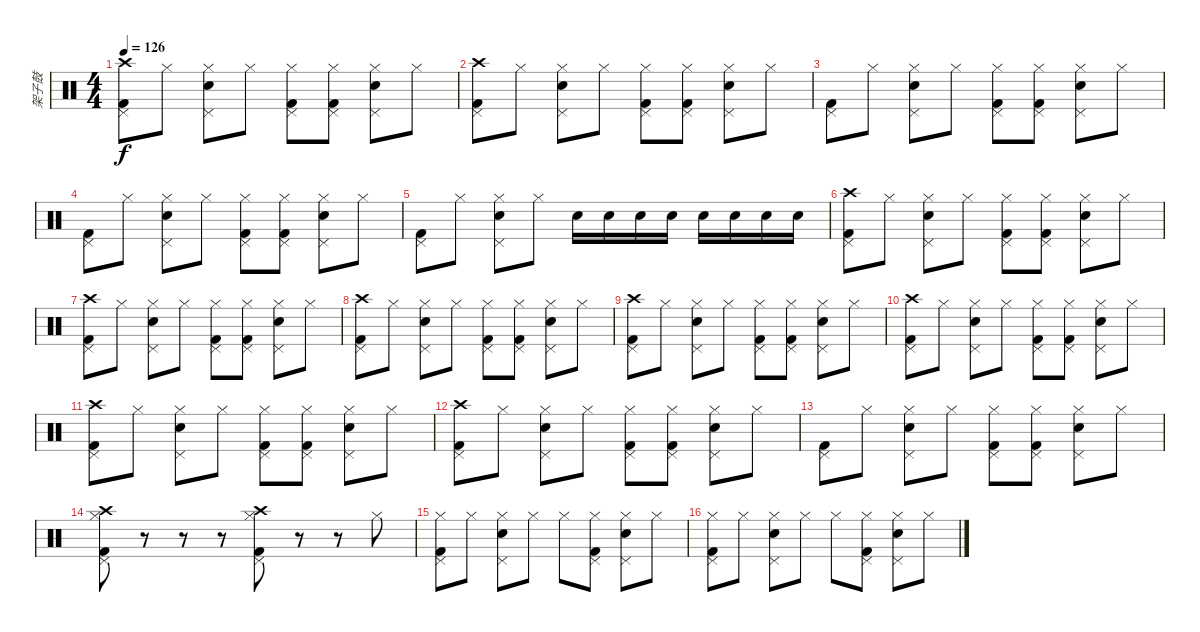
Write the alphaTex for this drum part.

\track ("架子鼓" "架子鼓") {instrument percussion}
\staff {score}
\articulation defaults
\ts (4 4)
\tempo 126
\clef neutral
\ks c
("Crash high (hit)" "Pedal Hi-Hat (hit)" "Kick (hit) 2").8{dy f} "Hi-Hat (closed)".8 ("Pedal Hi-Hat (hit)" "Hi-Hat (closed)" "Snare (hit) 2").8 "Hi-Hat (closed)".8 ("Pedal Hi-Hat (hit)" "Hi-Hat (closed)" "Kick (hit) 2").8 ("Pedal Hi-Hat (hit)" "Hi-Hat (closed)" "Kick (hit) 2").8 ("Pedal Hi-Hat (hit)" "Hi-Hat (closed)" "Snare (hit) 2").8 "Hi-Hat (closed)".8 |
("Crash high (hit)" "Pedal Hi-Hat (hit)" "Kick (hit) 2").8 "Hi-Hat (closed)".8 ("Pedal Hi-Hat (hit)" "Hi-Hat (closed)" "Snare (hit) 2").8 "Hi-Hat (closed)".8 ("Pedal Hi-Hat (hit)" "Hi-Hat (closed)" "Kick (hit) 2").8 ("Pedal Hi-Hat (hit)" "Hi-Hat (closed)" "Kick (hit) 2").8 ("Pedal Hi-Hat (hit)" "Hi-Hat (closed)" "Snare (hit) 2").8 "Hi-Hat (closed)".8 |
("Pedal Hi-Hat (hit)" "Kick (hit) 2").8 "Hi-Hat (closed)".8 ("Pedal Hi-Hat (hit)" "Hi-Hat (closed)" "Snare (hit) 2").8 "Hi-Hat (closed)".8 ("Pedal Hi-Hat (hit)" "Hi-Hat (closed)" "Kick (hit) 2").8 ("Pedal Hi-Hat (hit)" "Hi-Hat (closed)" "Kick (hit) 2").8 ("Pedal Hi-Hat (hit)" "Hi-Hat (closed)" "Snare (hit) 2").8 "Hi-Hat (closed)".8 |
("Pedal Hi-Hat (hit)" "Kick (hit) 2").8 "Hi-Hat (closed)".8 ("Pedal Hi-Hat (hit)" "Hi-Hat (closed)" "Snare (hit) 2").8 "Hi-Hat (closed)".8 ("Pedal Hi-Hat (hit)" "Hi-Hat (closed)" "Kick (hit) 2").8 ("Pedal Hi-Hat (hit)" "Hi-Hat (closed)" "Kick (hit) 2").8 ("Pedal Hi-Hat (hit)" "Hi-Hat (closed)" "Snare (hit) 2").8 "Hi-Hat (closed)".8 |
("Pedal Hi-Hat (hit)" "Kick (hit) 2").8 "Hi-Hat (closed)".8 ("Pedal Hi-Hat (hit)" "Hi-Hat (closed)" "Snare (hit) 2").8 "Hi-Hat (closed)".8 "Snare (hit) 2".16 "Snare (hit) 2".16 "Snare (hit) 2".16 "Snare (hit) 2".16 "Snare (hit) 2".16 "Snare (hit) 2".16 "Snare (hit) 2".16 "Snare (hit) 2".16 |
("Crash high (hit)" "Pedal Hi-Hat (hit)" "Kick (hit) 2").8 "Hi-Hat (closed)".8 ("Pedal Hi-Hat (hit)" "Hi-Hat (closed)" "Snare (hit) 2").8 "Hi-Hat (closed)".8 ("Pedal Hi-Hat (hit)" "Hi-Hat (closed)" "Kick (hit) 2").8 ("Pedal Hi-Hat (hit)" "Hi-Hat (closed)" "Kick (hit) 2").8 ("Pedal Hi-Hat (hit)" "Hi-Hat (closed)" "Snare (hit) 2").8 "Hi-Hat (closed)".8 |
("Crash high (hit)" "Pedal Hi-Hat (hit)" "Kick (hit) 2").8 "Hi-Hat (closed)".8 ("Pedal Hi-Hat (hit)" "Hi-Hat (closed)" "Snare (hit) 2").8 "Hi-Hat (closed)".8 ("Pedal Hi-Hat (hit)" "Hi-Hat (closed)" "Kick (hit) 2").8 ("Pedal Hi-Hat (hit)" "Hi-Hat (closed)" "Kick (hit) 2").8 ("Pedal Hi-Hat (hit)" "Hi-Hat (closed)" "Snare (hit) 2").8 "Hi-Hat (closed)".8 |
("Crash high (hit)" "Pedal Hi-Hat (hit)" "Kick (hit) 2").8 "Hi-Hat (closed)".8 ("Pedal Hi-Hat (hit)" "Hi-Hat (closed)" "Snare (hit) 2").8 "Hi-Hat (closed)".8 ("Pedal Hi-Hat (hit)" "Hi-Hat (closed)" "Kick (hit) 2").8 ("Pedal Hi-Hat (hit)" "Hi-Hat (closed)" "Kick (hit) 2").8 ("Pedal Hi-Hat (hit)" "Hi-Hat (closed)" "Snare (hit) 2").8 "Hi-Hat (closed)".8 |
("Crash high (hit)" "Pedal Hi-Hat (hit)" "Kick (hit) 2").8 "Hi-Hat (closed)".8 ("Pedal Hi-Hat (hit)" "Hi-Hat (closed)" "Snare (hit) 2").8 "Hi-Hat (closed)".8 ("Pedal Hi-Hat (hit)" "Hi-Hat (closed)" "Kick (hit) 2").8 ("Pedal Hi-Hat (hit)" "Hi-Hat (closed)" "Kick (hit) 2").8 ("Pedal Hi-Hat (hit)" "Hi-Hat (closed)" "Snare (hit) 2").8 "Hi-Hat (closed)".8 |
("Crash high (hit)" "Pedal Hi-Hat (hit)" "Kick (hit) 2").8 "Hi-Hat (closed)".8 ("Pedal Hi-Hat (hit)" "Hi-Hat (closed)" "Snare (hit) 2").8 "Hi-Hat (closed)".8 ("Pedal Hi-Hat (hit)" "Hi-Hat (closed)" "Kick (hit) 2").8 ("Pedal Hi-Hat (hit)" "Hi-Hat (closed)" "Kick (hit) 2").8 ("Pedal Hi-Hat (hit)" "Hi-Hat (closed)" "Snare (hit) 2").8 "Hi-Hat (closed)".8 |
("Crash high (hit)" "Pedal Hi-Hat (hit)" "Kick (hit) 2").8 "Hi-Hat (closed)".8 ("Pedal Hi-Hat (hit)" "Hi-Hat (closed)" "Snare (hit) 2").8 "Hi-Hat (closed)".8 ("Pedal Hi-Hat (hit)" "Hi-Hat (closed)" "Kick (hit) 2").8 ("Pedal Hi-Hat (hit)" "Hi-Hat (closed)" "Kick (hit) 2").8 ("Pedal Hi-Hat (hit)" "Hi-Hat (closed)" "Snare (hit) 2").8 "Hi-Hat (closed)".8 |
("Crash high (hit)" "Pedal Hi-Hat (hit)" "Kick (hit) 2").8 "Hi-Hat (closed)".8 ("Pedal Hi-Hat (hit)" "Hi-Hat (closed)" "Snare (hit) 2").8 "Hi-Hat (closed)".8 ("Pedal Hi-Hat (hit)" "Hi-Hat (closed)" "Kick (hit) 2").8 ("Pedal Hi-Hat (hit)" "Hi-Hat (closed)" "Kick (hit) 2").8 ("Pedal Hi-Hat (hit)" "Hi-Hat (closed)" "Snare (hit) 2").8 "Hi-Hat (closed)".8 |
("Pedal Hi-Hat (hit)" "Kick (hit) 2").8 "Hi-Hat (closed)".8 ("Pedal Hi-Hat (hit)" "Hi-Hat (closed)" "Snare (hit) 2").8 "Hi-Hat (closed)".8 ("Pedal Hi-Hat (hit)" "Hi-Hat (closed)" "Kick (hit) 2").8 ("Pedal Hi-Hat (hit)" "Hi-Hat (closed)" "Kick (hit) 2").8 ("Pedal Hi-Hat (hit)" "Hi-Hat (closed)" "Snare (hit) 2").8 "Hi-Hat (closed)".8 |
("Crash high (hit)" "Pedal Hi-Hat (hit)" "Hi-Hat (closed)" "Kick (hit) 2").8 r.8 r.8 r.8 ("Crash high (hit)" "Pedal Hi-Hat (hit)" "Hi-Hat (closed)" "Kick (hit) 2").8 r.8 r.8 "Hi-Hat (closed)".8 |
("Pedal Hi-Hat (hit)" "Hi-Hat (closed)" "Kick (hit) 2").8 "Hi-Hat (closed)".8 ("Pedal Hi-Hat (hit)" "Hi-Hat (closed)" "Snare (hit) 2").8 "Hi-Hat (closed)".8 "Hi-Hat (closed)".8 ("Pedal Hi-Hat (hit)" "Hi-Hat (closed)" "Kick (hit) 2").8 ("Pedal Hi-Hat (hit)" "Hi-Hat (closed)" "Snare (hit) 2").8 "Hi-Hat (closed)".8 |
("Pedal Hi-Hat (hit)" "Hi-Hat (closed)" "Kick (hit) 2").8 "Hi-Hat (closed)".8 ("Pedal Hi-Hat (hit)" "Hi-Hat (closed)" "Snare (hit) 2").8 "Hi-Hat (closed)".8 "Hi-Hat (closed)".8 ("Pedal Hi-Hat (hit)" "Hi-Hat (closed)" "Kick (hit) 2").8 ("Pedal Hi-Hat (hit)" "Hi-Hat (closed)" "Snare (hit) 2").8 "Hi-Hat (closed)".8
